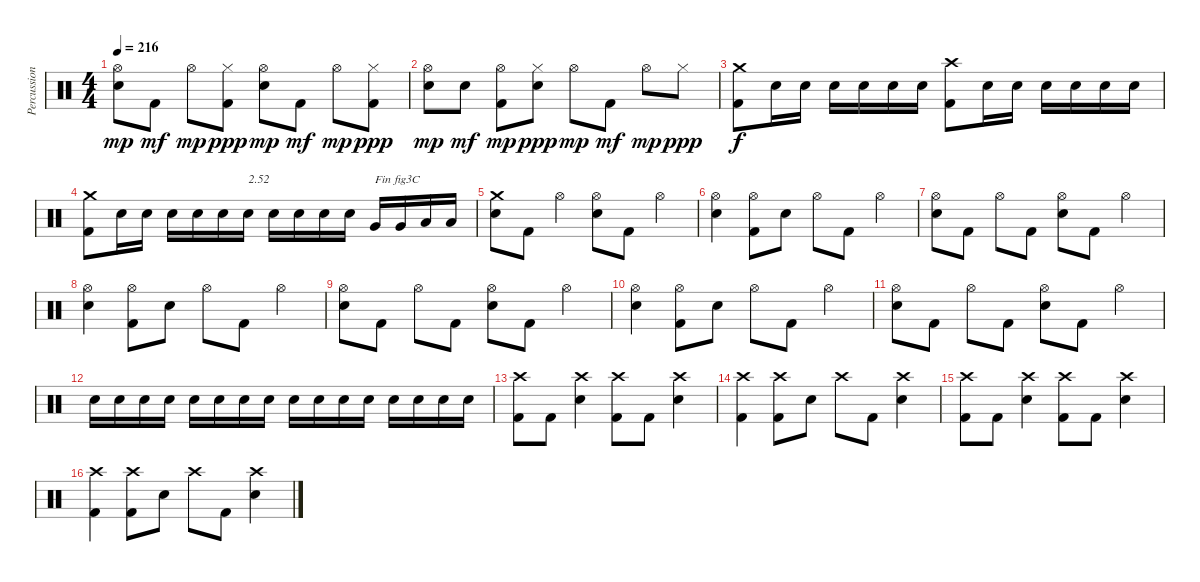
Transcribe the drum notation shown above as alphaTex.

\track ("Percussion" "Percussion") {instrument percussion}
\staff {score}
\articulation defaults
\ts (4 4)
\tempo 216
\clef neutral
\ks c
("Snare (hit) 2" "Hi-Hat (open)").8{dy mp} "Kick (hit) 2".8{dy mf} "Hi-Hat (open)".8{dy mp} ("Kick (hit) 2" "Hi-Hat (closed)").8{dy ppp} ("Snare (hit) 2" "Hi-Hat (open)").8{dy mp} "Kick (hit) 2".8{dy mf} "Hi-Hat (open)".8{dy mp} ("Kick (hit) 2" "Hi-Hat (closed)").8{dy ppp} |
("Snare (hit) 2" "Hi-Hat (open)").8{dy mp} "Snare (hit) 2".8{dy mf} ("Kick (hit) 2" "Hi-Hat (open)").8{dy mp} ("Snare (hit) 2" "Hi-Hat (closed)").8{dy ppp} "Hi-Hat (open)".8{dy mp} "Kick (hit) 2".8{dy mf} "Hi-Hat (open)".8{dy mp} "Hi-Hat (closed)".8{dy ppp} |
("Kick (hit) 2" "Crash medium (hit)").8{dy f} "Electric Snare (hit)".16 "Electric Snare (hit)".16 "Electric Snare (hit)".16 "Electric Snare (hit)".16 "Electric Snare (hit)".16 "Electric Snare (hit)".16 ("Kick (hit) 2" "Crash high (hit)").8 "Electric Snare (hit)".16 "Electric Snare (hit)".16 "Electric Snare (hit)".16 "Electric Snare (hit)".16 "Electric Snare (hit)".16 "Electric Snare (hit)".16 |
("Kick (hit) 2" "Crash medium (hit)").8 "Electric Snare (hit)".16 "Electric Snare (hit)".16 "Electric Snare (hit)".16 "Electric Snare (hit)".16 "Electric Snare (hit)".16 "Electric Snare (hit)".16{txt "2.52"} "Electric Snare (hit)".16 "Electric Snare (hit)".16 "Electric Snare (hit)".16 "Electric Snare (hit)".16 "Very Low Tom (hit)".16{txt "Fin fig3C"} "Very Low Tom (hit)".16 "Low Floor Tom (hit)".16 "Low Floor Tom (hit)".16 |
("Electric Snare (hit)" "Crash medium (hit)").8 "Kick (hit) 2".8 "Hi-Hat (open)".4 ("Electric Snare (hit)" "Hi-Hat (open)").8 "Kick (hit) 2".8 "Hi-Hat (open)".4 |
("Electric Snare (hit)" "Hi-Hat (open)").4 ("Kick (hit) 2" "Hi-Hat (open)").8 "Electric Snare (hit)".8 "Hi-Hat (open)".8 "Kick (hit) 2".8 "Hi-Hat (open)".4 |
("Electric Snare (hit)" "Hi-Hat (open)").8 "Kick (hit) 2".8 "Hi-Hat (open)".8 "Kick (hit) 2".8 ("Electric Snare (hit)" "Hi-Hat (open)").8 "Kick (hit) 2".8 "Hi-Hat (open)".4 |
("Electric Snare (hit)" "Hi-Hat (open)").4 ("Kick (hit) 2" "Hi-Hat (open)").8 "Electric Snare (hit)".8 "Hi-Hat (open)".8 "Kick (hit) 2".8 "Hi-Hat (open)".4 |
("Electric Snare (hit)" "Hi-Hat (open)").8 "Kick (hit) 2".8 "Hi-Hat (open)".8 "Kick (hit) 2".8 ("Electric Snare (hit)" "Hi-Hat (open)").8 "Kick (hit) 2".8 "Hi-Hat (open)".4 |
("Electric Snare (hit)" "Hi-Hat (open)").4 ("Kick (hit) 2" "Hi-Hat (open)").8 "Electric Snare (hit)".8 "Hi-Hat (open)".8 "Kick (hit) 2".8 "Hi-Hat (open)".4 |
("Electric Snare (hit)" "Hi-Hat (open)").8 "Kick (hit) 2".8 "Hi-Hat (open)".8 "Kick (hit) 2".8 ("Electric Snare (hit)" "Hi-Hat (open)").8 "Kick (hit) 2".8 "Hi-Hat (open)".4 |
"Electric Snare (hit)".16 "Electric Snare (hit)".16 "Electric Snare (hit)".16 "Electric Snare (hit)".16 "Electric Snare (hit)".16 "Electric Snare (hit)".16 "Electric Snare (hit)".16 "Electric Snare (hit)".16 "Electric Snare (hit)".16 "Electric Snare (hit)".16 "Electric Snare (hit)".16 "Electric Snare (hit)".16 "Electric Snare (hit)".16 "Electric Snare (hit)".16 "Electric Snare (hit)".16 "Electric Snare (hit)".16 |
("Kick (hit) 2" "Crash high (hit)").8 "Kick (hit) 2".8 ("Electric Snare (hit)" "Crash high (hit)").4 ("Kick (hit) 2" "Crash high (hit)").8 "Kick (hit) 2".8 ("Electric Snare (hit)" "Crash high (hit)").4 |
("Kick (hit) 2" "Crash high (hit)").4 ("Kick (hit) 2" "Crash high (hit)").8 "Electric Snare (hit)".8 "Crash high (hit)".8 "Kick (hit) 2".8 ("Electric Snare (hit)" "Crash high (hit)").4 |
("Kick (hit) 2" "Crash high (hit)").8 "Kick (hit) 2".8 ("Electric Snare (hit)" "Crash high (hit)").4 ("Kick (hit) 2" "Crash high (hit)").8 "Kick (hit) 2".8 ("Electric Snare (hit)" "Crash high (hit)").4 |
("Kick (hit) 2" "Crash high (hit)").4 ("Kick (hit) 2" "Crash high (hit)").8 "Electric Snare (hit)".8 "Crash high (hit)".8 "Kick (hit) 2".8 ("Electric Snare (hit)" "Crash high (hit)").4
